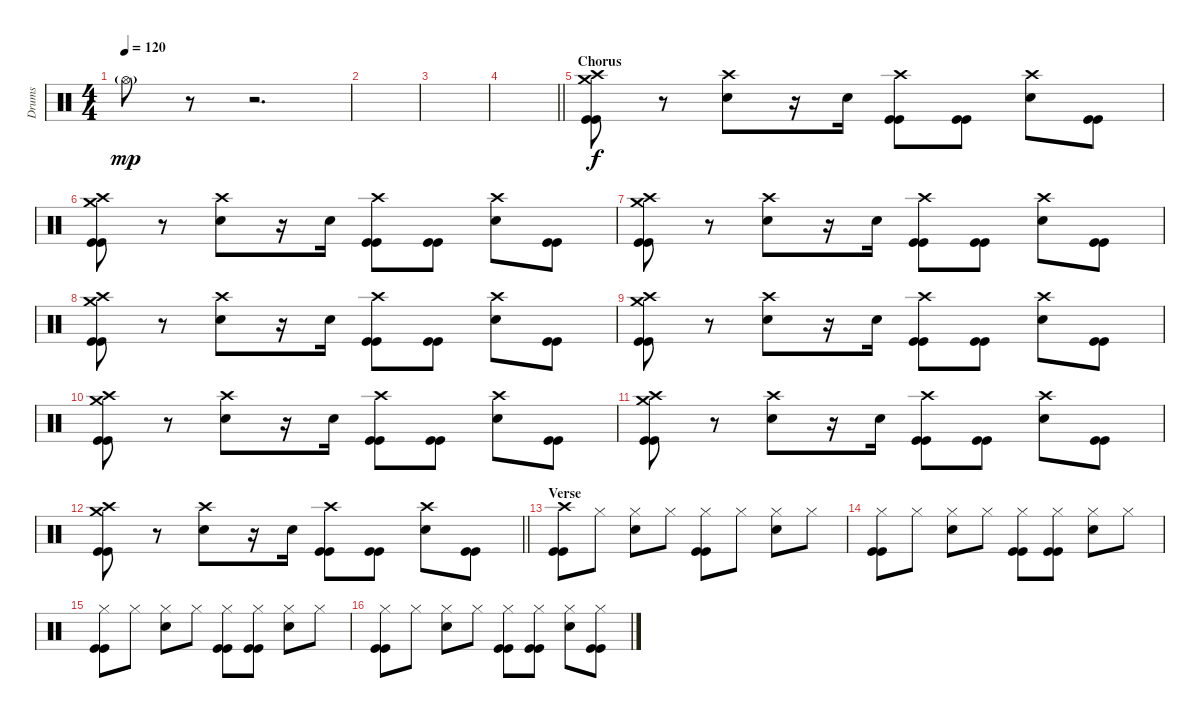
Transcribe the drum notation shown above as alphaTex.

\track ("Drums" "Drums") {instrument percussion}
\staff {score}
\articulation defaults
\ts (4 4)
\tempo 120
\clef neutral
\ks c "Hi-Hat (open)"{g}.8{dy mp}
r.8 r.2{d} |
|
|
\barLineRight lightlight
|
\section ("" "Chorus")
("Crash high (hit)" "Kick (hit)" "Kick (hit)" "Crash medium (hit)").8{dy f} r.8 ("Crash high (hit)" "Snare (hit) 2").8 r.16 "Snare (hit) 2".16 ("Crash high (hit)" "Kick (hit)" "Kick (hit)").8 ("Kick (hit)" "Kick (hit)").8 ("Crash high (hit)" "Snare (hit) 2").8 ("Kick (hit)" "Kick (hit)").8 |
("Crash high (hit)" "Kick (hit)" "Kick (hit)" "Crash medium (hit)").8 r.8 ("Crash high (hit)" "Snare (hit) 2").8 r.16 "Snare (hit) 2".16 ("Crash high (hit)" "Kick (hit)" "Kick (hit)").8 ("Kick (hit)" "Kick (hit)").8 ("Crash high (hit)" "Snare (hit) 2").8 ("Kick (hit)" "Kick (hit)").8 |
("Crash high (hit)" "Kick (hit)" "Kick (hit)" "Crash medium (hit)").8 r.8 ("Crash high (hit)" "Snare (hit) 2").8 r.16 "Snare (hit) 2".16 ("Crash high (hit)" "Kick (hit)" "Kick (hit)").8 ("Kick (hit)" "Kick (hit)").8 ("Crash high (hit)" "Snare (hit) 2").8 ("Kick (hit)" "Kick (hit)").8 |
("Crash high (hit)" "Kick (hit)" "Kick (hit)" "Crash medium (hit)").8 r.8 ("Crash high (hit)" "Snare (hit) 2").8 r.16 "Snare (hit) 2".16 ("Crash high (hit)" "Kick (hit)" "Kick (hit)").8 ("Kick (hit)" "Kick (hit)").8 ("Crash high (hit)" "Snare (hit) 2").8 ("Kick (hit)" "Kick (hit)").8 |
("Crash high (hit)" "Kick (hit)" "Kick (hit)" "Crash medium (hit)").8 r.8 ("Crash high (hit)" "Snare (hit) 2").8 r.16 "Snare (hit) 2".16 ("Crash high (hit)" "Kick (hit)" "Kick (hit)").8 ("Kick (hit)" "Kick (hit)").8 ("Crash high (hit)" "Snare (hit) 2").8 ("Kick (hit)" "Kick (hit)").8 |
("Crash high (hit)" "Kick (hit)" "Kick (hit)" "Crash medium (hit)").8 r.8 ("Crash high (hit)" "Snare (hit) 2").8 r.16 "Snare (hit) 2".16 ("Crash high (hit)" "Kick (hit)" "Kick (hit)").8 ("Kick (hit)" "Kick (hit)").8 ("Crash high (hit)" "Snare (hit) 2").8 ("Kick (hit)" "Kick (hit)").8 |
("Crash high (hit)" "Kick (hit)" "Kick (hit)" "Crash medium (hit)").8 r.8 ("Crash high (hit)" "Snare (hit) 2").8 r.16 "Snare (hit) 2".16 ("Crash high (hit)" "Kick (hit)" "Kick (hit)").8 ("Kick (hit)" "Kick (hit)").8 ("Crash high (hit)" "Snare (hit) 2").8 ("Kick (hit)" "Kick (hit)").8 |
\barLineRight lightlight
("Crash high (hit)" "Kick (hit)" "Kick (hit)" "Crash medium (hit)").8 r.8 ("Crash high (hit)" "Snare (hit) 2").8 r.16 "Snare (hit) 2".16 ("Crash high (hit)" "Kick (hit)" "Kick (hit)").8 ("Kick (hit)" "Kick (hit)").8 ("Crash high (hit)" "Snare (hit) 2").8 ("Kick (hit)" "Kick (hit)").8 |
\section ("" "Verse")
("Crash high (hit)" "Kick (hit)" "Kick (hit)").8 "Hi-Hat (closed)".8 ("Hi-Hat (closed)" "Snare (hit) 2").8 "Hi-Hat (closed)".8 ("Hi-Hat (closed)" "Kick (hit)" "Kick (hit)").8 "Hi-Hat (closed)".8 ("Hi-Hat (closed)" "Snare (hit) 2").8 "Hi-Hat (closed)".8 |
("Hi-Hat (closed)" "Kick (hit)" "Kick (hit)").8 "Hi-Hat (closed)".8 ("Hi-Hat (closed)" "Snare (hit) 2").8 "Hi-Hat (closed)".8 ("Hi-Hat (closed)" "Kick (hit)" "Kick (hit)").8 ("Hi-Hat (closed)" "Kick (hit)" "Kick (hit)").8 ("Hi-Hat (closed)" "Snare (hit) 2").8 "Hi-Hat (closed)".8 |
("Hi-Hat (closed)" "Kick (hit)" "Kick (hit)").8 "Hi-Hat (closed)".8 ("Hi-Hat (closed)" "Snare (hit) 2").8 "Hi-Hat (closed)".8 ("Hi-Hat (closed)" "Kick (hit)" "Kick (hit)").8 ("Hi-Hat (closed)" "Kick (hit)" "Kick (hit)").8 ("Hi-Hat (closed)" "Snare (hit) 2").8 "Hi-Hat (closed)".8 |
("Hi-Hat (closed)" "Kick (hit)" "Kick (hit)").8 "Hi-Hat (closed)".8 ("Hi-Hat (closed)" "Snare (hit) 2").8 "Hi-Hat (closed)".8 ("Hi-Hat (closed)" "Kick (hit)" "Kick (hit)").8 ("Hi-Hat (closed)" "Kick (hit)" "Kick (hit)").8 ("Hi-Hat (closed)" "Snare (hit) 2").8 ("Hi-Hat (closed)" "Kick (hit)" "Kick (hit)").8
